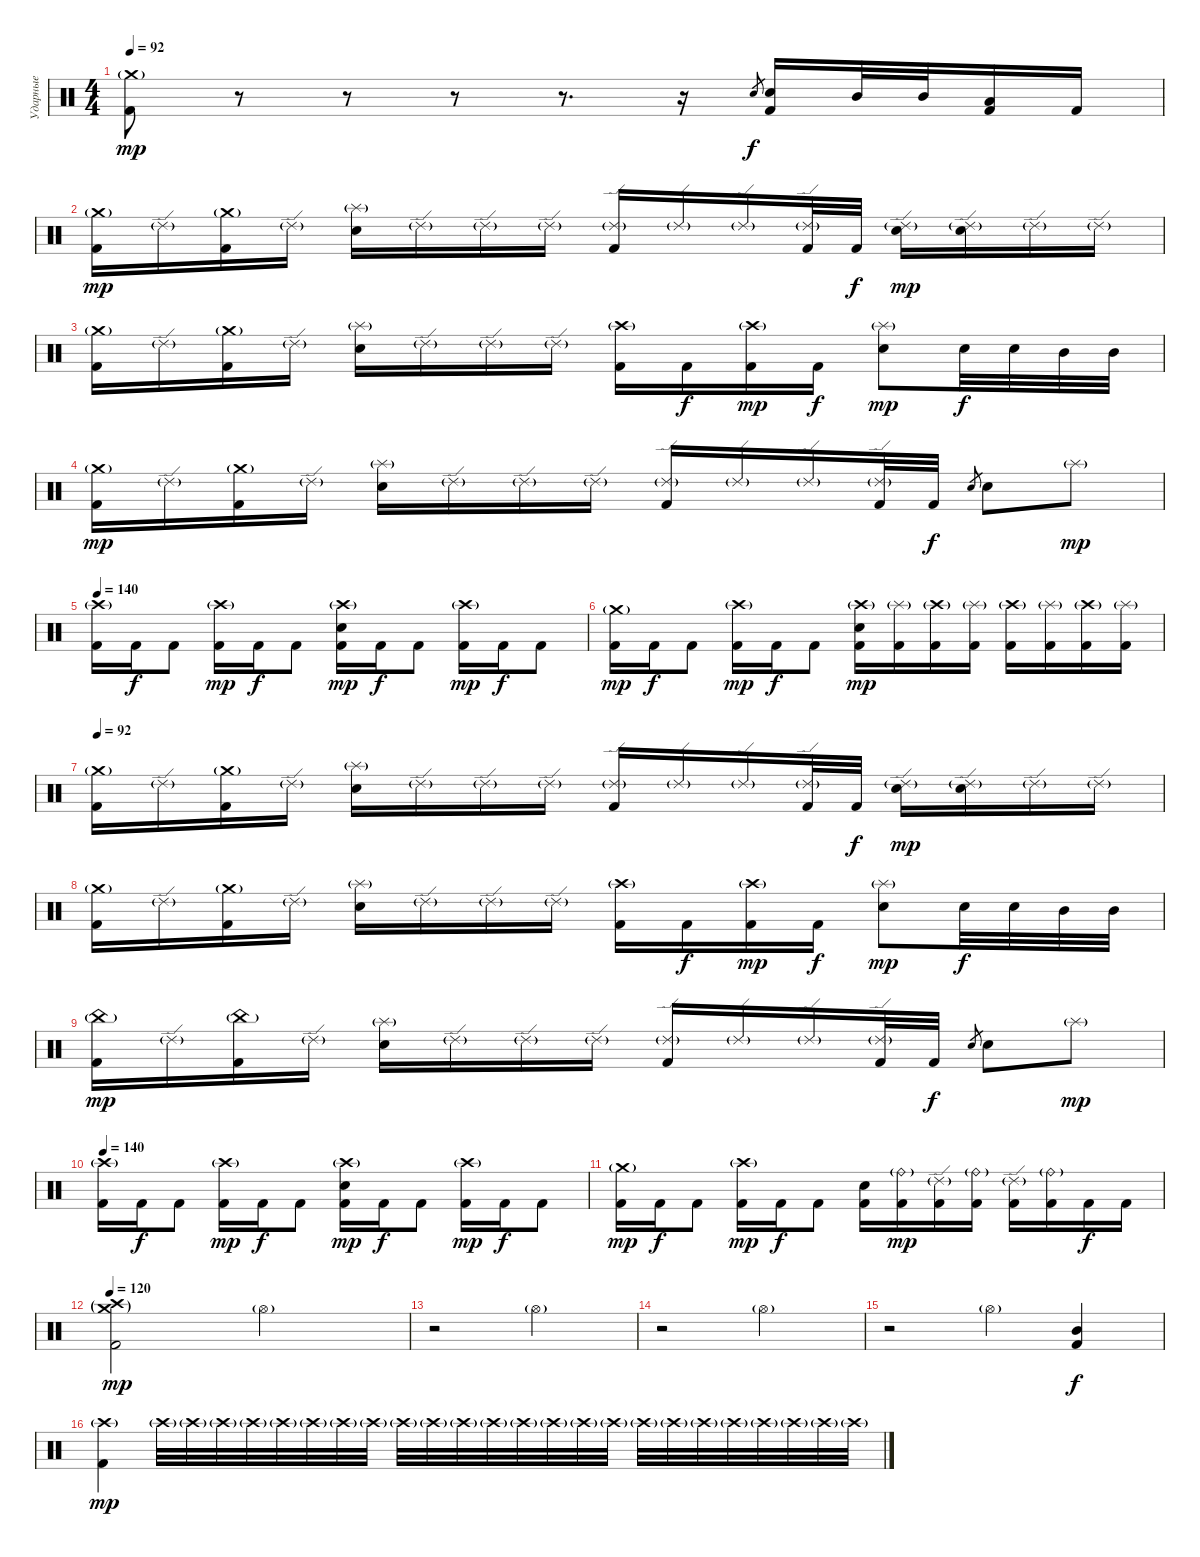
\track ("Ударные" "Ударные") {instrument percussion}
\staff {score}
\articulation defaults
\ts (4 4)
\tempo 92
\clef neutral
\ks c
("Crash medium (hit)"{g} "Kick (hit) 2").8{dy mp} r.8{volume 0} r.8 r.8 r.8{d} r.16{volume 16} "Electric Snare (hit)".8{gr dy f} ("Electric Snare (hit)" "Kick (hit) 2").16 "Mid Tom (hit)".32 "Mid Tom (hit)".32 ("Low Tom (hit)" "Kick (hit) 2").16 "Kick (hit) 2".16 |
("Crash medium (hit)"{g} "Kick (hit) 2").16{dy mp} "Ride (edge) 2"{g}.16 ("Crash medium (hit)"{g} "Kick (hit) 2").16 "Ride (edge) 2"{g}.16 ("Splash (hit)"{g} "Electric Snare (hit)").16 "Ride (edge) 2"{g}.16 "Ride (edge) 2"{g}.16 "Ride (edge) 2"{g}.16 ("Ride (edge) 2"{g} "Kick (hit) 2").16 "Ride (edge) 2"{g}.16 "Ride (edge) 2"{g}.16 ("Ride (edge) 2"{g} "Kick (hit) 2").32 "Kick (hit) 2".32{dy f} ("Ride (edge) 2"{g} "Electric Snare (hit)").16{dy mp} ("Ride (edge) 2"{g} "Electric Snare (hit)").16 "Ride (edge) 2"{g}.16 "Ride (edge) 2"{g}.16 |
("Crash medium (hit)"{g} "Kick (hit) 2").16 "Ride (edge) 2"{g}.16 ("Crash medium (hit)"{g} "Kick (hit) 2").16 "Ride (edge) 2"{g}.16 ("Splash (hit)"{g} "Electric Snare (hit)").16 "Ride (edge) 2"{g}.16 "Ride (edge) 2"{g}.16 "Ride (edge) 2"{g}.16 ("Crash high (hit)"{g} "Kick (hit) 2").16 "Kick (hit) 2".16{dy f} ("Crash high (hit)"{g} "Kick (hit) 2").16{dy mp} "Kick (hit) 2".16{dy f} ("Splash (hit)"{g} "Electric Snare (hit)").8{dy mp} "Electric Snare (hit)".32{dy f} "Electric Snare (hit)".32 "Mid Tom (hit)".32 "Mid Tom (hit)".32 |
("Crash medium (hit)"{g} "Kick (hit) 2").16{dy mp} "Ride (edge) 2"{g}.16 ("Crash medium (hit)"{g} "Kick (hit) 2").16 "Ride (edge) 2"{g}.16 ("Splash (hit)"{g} "Electric Snare (hit)").16 "Ride (edge) 2"{g}.16 "Ride (edge) 2"{g}.16 "Ride (edge) 2"{g}.16 ("Ride (edge) 2"{g} "Kick (hit) 2").16 "Ride (edge) 2"{g}.16 "Ride (edge) 2"{g}.16 ("Ride (edge) 2"{g} "Kick (hit) 2").32 "Kick (hit) 2".32{dy f} "Electric Snare (hit)".8{gr} "Electric Snare (hit)".8 "Splash (hit)"{g}.8{dy mp} |
\tempo 140
("Crash high (hit)"{g} "Kick (hit) 2").16 "Kick (hit) 2".16{dy f} "Kick (hit) 2".8 ("Crash high (hit)"{g} "Kick (hit) 2").16{dy mp} "Kick (hit) 2".16{dy f} "Kick (hit) 2".8 ("Crash high (hit)"{g} "Electric Snare (hit)" "Kick (hit) 2").16{dy mp} "Kick (hit) 2".16{dy f} "Kick (hit) 2".8 ("Crash high (hit)"{g} "Kick (hit) 2").16{dy mp} "Kick (hit) 2".16{dy f} "Kick (hit) 2".8 |
("Crash medium (hit)"{g} "Kick (hit) 2").16{dy mp} "Kick (hit) 2".16{dy f} "Kick (hit) 2".8 ("Crash high (hit)"{g} "Kick (hit) 2").16{dy mp} "Kick (hit) 2".16{dy f} "Kick (hit) 2".8 ("Crash high (hit)"{g} "Electric Snare (hit)" "Kick (hit) 2").16{dy mp} ("Splash (hit)"{g} "Kick (hit) 2").16 ("Crash high (hit)"{g} "Kick (hit) 2").16 ("Splash (hit)"{g} "Kick (hit) 2").16 ("Crash high (hit)"{g} "Kick (hit) 2").16 ("Splash (hit)"{g} "Kick (hit) 2").16 ("Crash high (hit)"{g} "Kick (hit) 2").16 ("Splash (hit)"{g} "Kick (hit) 2").16 |
\tempo 92
("Crash medium (hit)"{g} "Kick (hit) 2").16 "Ride (edge) 2"{g}.16 ("Crash medium (hit)"{g} "Kick (hit) 2").16 "Ride (edge) 2"{g}.16 ("Splash (hit)"{g} "Electric Snare (hit)").16 "Ride (edge) 2"{g}.16 "Ride (edge) 2"{g}.16 "Ride (edge) 2"{g}.16 ("Ride (edge) 2"{g} "Kick (hit) 2").16 "Ride (edge) 2"{g}.16 "Ride (edge) 2"{g}.16 ("Ride (edge) 2"{g} "Kick (hit) 2").32 "Kick (hit) 2".32{dy f} ("Ride (edge) 2"{g} "Electric Snare (hit)").16{dy mp} ("Ride (edge) 2"{g} "Electric Snare (hit)").16 "Ride (edge) 2"{g}.16 "Ride (edge) 2"{g}.16 |
("Crash medium (hit)"{g} "Kick (hit) 2").16 "Ride (edge) 2"{g}.16 ("Crash medium (hit)"{g} "Kick (hit) 2").16 "Ride (edge) 2"{g}.16 ("Splash (hit)"{g} "Electric Snare (hit)").16 "Ride (edge) 2"{g}.16 "Ride (edge) 2"{g}.16 "Ride (edge) 2"{g}.16 ("Crash high (hit)"{g} "Kick (hit) 2").16 "Kick (hit) 2".16{dy f} ("Crash high (hit)"{g} "Kick (hit) 2").16{dy mp} "Kick (hit) 2".16{dy f} ("Splash (hit)"{g} "Electric Snare (hit)").8{dy mp} "Electric Snare (hit)".32{dy f} "Electric Snare (hit)".32 "Mid Tom (hit)".32 "Mid Tom (hit)".32 |
("China (hit)"{g} "Kick (hit) 2").16{dy mp} "Ride (edge) 2"{g}.16 ("China (hit)"{g} "Kick (hit) 2").16 "Ride (edge) 2"{g}.16 ("Splash (hit)"{g} "Electric Snare (hit)").16 "Ride (edge) 2"{g}.16 "Ride (edge) 2"{g}.16 "Ride (edge) 2"{g}.16 ("Ride (edge) 2"{g} "Kick (hit) 2").16 "Ride (edge) 2"{g}.16 "Ride (edge) 2"{g}.16 ("Ride (edge) 2"{g} "Kick (hit) 2").32 "Kick (hit) 2".32{dy f} "Electric Snare (hit)".8{gr} "Electric Snare (hit)".8 "Splash (hit)"{g}.8{dy mp} |
\tempo 140
("Crash high (hit)"{g} "Kick (hit) 2").16 "Kick (hit) 2".16{dy f} "Kick (hit) 2".8 ("Crash high (hit)"{g} "Kick (hit) 2").16{dy mp} "Kick (hit) 2".16{dy f} "Kick (hit) 2".8 ("Crash high (hit)"{g} "Electric Snare (hit)" "Kick (hit) 2").16{dy mp} "Kick (hit) 2".16{dy f} "Kick (hit) 2".8 ("Crash high (hit)"{g} "Kick (hit) 2").16{dy mp} "Kick (hit) 2".16{dy f} "Kick (hit) 2".8 |
("Crash medium (hit)"{g} "Kick (hit) 2").16{dy mp} "Kick (hit) 2".16{dy f} "Kick (hit) 2".8 ("Crash high (hit)"{g} "Kick (hit) 2").16{dy mp} "Kick (hit) 2".16{dy f} "Kick (hit) 2".8 ("Electric Snare (hit)" "Kick (hit) 2").16 ("Ride (bell)"{g} "Kick (hit) 2").16{dy mp} ("Ride (edge) 2"{g} "Kick (hit) 2").16 ("Ride (bell)"{g} "Kick (hit) 2").16 ("Ride (edge) 2"{g} "Kick (hit) 2").16 ("Ride (bell)"{g} "Kick (hit) 2").16 "Kick (hit) 2".16{dy f} "Kick (hit) 2".16 |
\tempo 120
("Crash high (hit)"{g} "Crash medium (hit)"{g} "Kick (hit) 2").2{dy mp} "Hi-Hat (open)"{g}.2 |
r.2 "Hi-Hat (open)"{g}.2 |
r.2 "Hi-Hat (open)"{g}.2 |
r.2 "Hi-Hat (open)"{g}.4 ("Mid Tom (hit)" "Kick (hit) 2").4{dy f} |
("Crash high (hit)"{g} "Kick (hit) 2").4{dy mp} "Crash high (hit)"{g}.32 "Crash high (hit)"{g}.32 "Crash high (hit)"{g}.32 "Crash high (hit)"{g}.32 "Crash high (hit)"{g}.32 "Crash high (hit)"{g}.32 "Crash high (hit)"{g}.32 "Crash high (hit)"{g}.32 "Crash high (hit)"{g}.32 "Crash high (hit)"{g}.32 "Crash high (hit)"{g}.32 "Crash high (hit)"{g}.32 "Crash high (hit)"{g}.32 "Crash high (hit)"{g}.32 "Crash high (hit)"{g}.32 "Crash high (hit)"{g}.32 "Crash high (hit)"{g}.32 "Crash high (hit)"{g}.32 "Crash high (hit)"{g}.32 "Crash high (hit)"{g}.32 "Crash high (hit)"{g}.32 "Crash high (hit)"{g}.32 "Crash high (hit)"{g}.32 "Crash high (hit)"{g}.32
